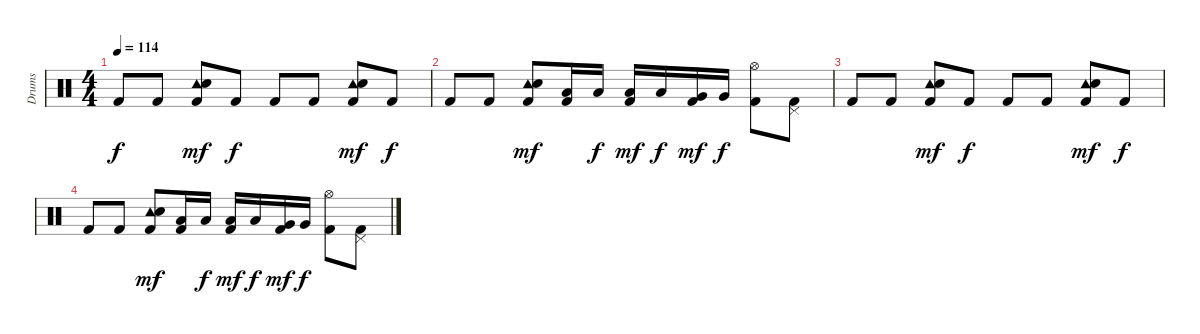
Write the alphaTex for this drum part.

\track ("Drums" "Drums") {instrument percussion}
\staff {score}
\articulation defaults
\ts (4 4)
\tempo 114
\clef neutral
\ks c "Kick (hit) 2".8{dy f} "Kick (hit) 2".8
("Tambourine (hit)" "Electric Snare (hit)" "Kick (hit) 2").8{dy mf} "Kick (hit) 2".8{dy f} "Kick (hit) 2".8 "Kick (hit) 2".8 ("Tambourine (hit)" "Electric Snare (hit)" "Kick (hit) 2").8{dy mf} "Kick (hit) 2".8{dy f} |
"Kick (hit) 2".8 "Kick (hit) 2".8 ("Tambourine (hit)" "Electric Snare (hit)" "Kick (hit) 2").8{dy mf} ("Low Tom (hit)" "Kick (hit) 2").16 "Low Tom (hit)".16{dy f} ("Low Tom (hit)" "Kick (hit) 2").16{dy mf} "Low Tom (hit)".16{dy f} ("Very Low Tom (hit)" "Kick (hit) 2").16{dy mf} "Very Low Tom (hit)".16{dy f} ("Hi-Hat (open)" "Kick (hit) 2").8 ("Pedal Hi-Hat (hit)" "Kick (hit) 2").8 |
"Kick (hit) 2".8 "Kick (hit) 2".8 ("Tambourine (hit)" "Electric Snare (hit)" "Kick (hit) 2").8{dy mf} "Kick (hit) 2".8{dy f} "Kick (hit) 2".8 "Kick (hit) 2".8 ("Tambourine (hit)" "Electric Snare (hit)" "Kick (hit) 2").8{dy mf} "Kick (hit) 2".8{dy f} |
"Kick (hit) 2".8 "Kick (hit) 2".8 ("Tambourine (hit)" "Electric Snare (hit)" "Kick (hit) 2").8{dy mf} ("Low Tom (hit)" "Kick (hit) 2").16 "Low Tom (hit)".16{dy f} ("Low Tom (hit)" "Kick (hit) 2").16{dy mf} "Low Tom (hit)".16{dy f} ("Very Low Tom (hit)" "Kick (hit) 2").16{dy mf} "Very Low Tom (hit)".16{dy f} ("Hi-Hat (open)" "Kick (hit) 2").8 ("Pedal Hi-Hat (hit)" "Kick (hit) 2").8
